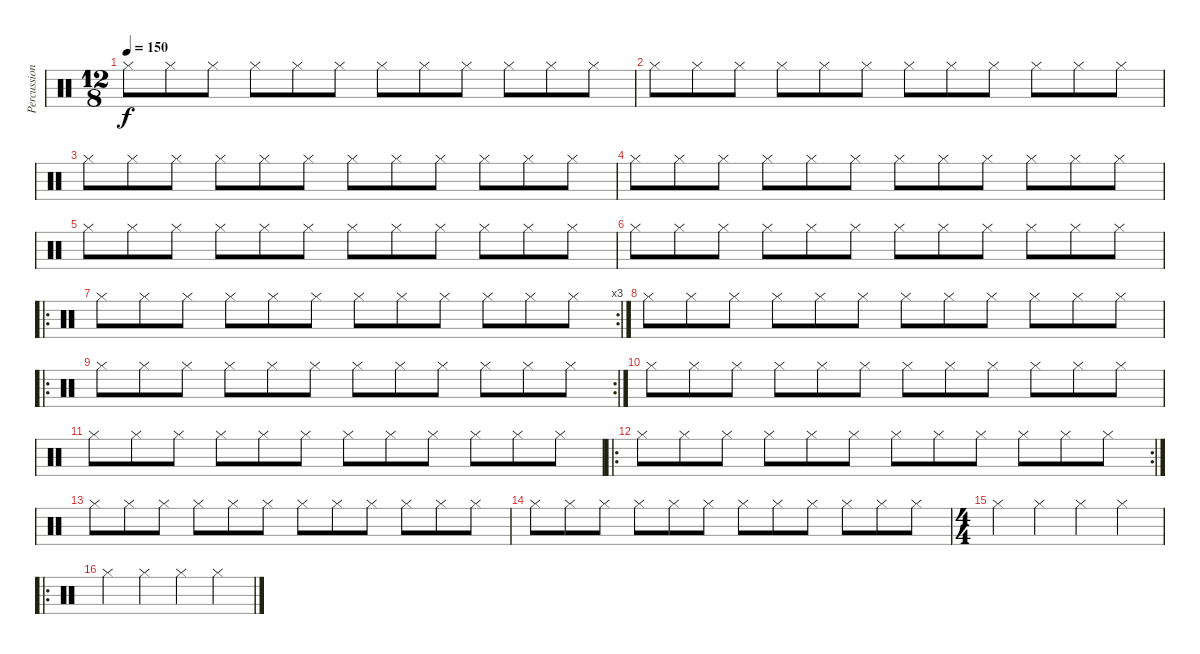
\track ("Percussioni" "Percussion") {instrument percussion}
\staff {score}
\articulation defaults
\ts (12 8)
\tempo 150
\clef neutral
\ks c "Hi-Hat (closed)".8{dy f} "Hi-Hat (closed)".8 "Hi-Hat (closed)".8 "Hi-Hat (closed)".8 "Hi-Hat (closed)".8 "Hi-Hat (closed)".8 "Hi-Hat (closed)".8 "Hi-Hat (closed)".8 "Hi-Hat (closed)".8 "Hi-Hat (closed)".8 "Hi-Hat (closed)".8 "Hi-Hat (closed)".8
|
"Hi-Hat (closed)".8 "Hi-Hat (closed)".8 "Hi-Hat (closed)".8 "Hi-Hat (closed)".8 "Hi-Hat (closed)".8 "Hi-Hat (closed)".8 "Hi-Hat (closed)".8 "Hi-Hat (closed)".8 "Hi-Hat (closed)".8 "Hi-Hat (closed)".8 "Hi-Hat (closed)".8 "Hi-Hat (closed)".8 |
"Hi-Hat (closed)".8 "Hi-Hat (closed)".8 "Hi-Hat (closed)".8 "Hi-Hat (closed)".8 "Hi-Hat (closed)".8 "Hi-Hat (closed)".8 "Hi-Hat (closed)".8 "Hi-Hat (closed)".8 "Hi-Hat (closed)".8 "Hi-Hat (closed)".8 "Hi-Hat (closed)".8 "Hi-Hat (closed)".8 |
"Hi-Hat (closed)".8 "Hi-Hat (closed)".8 "Hi-Hat (closed)".8 "Hi-Hat (closed)".8 "Hi-Hat (closed)".8 "Hi-Hat (closed)".8 "Hi-Hat (closed)".8 "Hi-Hat (closed)".8 "Hi-Hat (closed)".8 "Hi-Hat (closed)".8 "Hi-Hat (closed)".8 "Hi-Hat (closed)".8 |
"Hi-Hat (closed)".8 "Hi-Hat (closed)".8 "Hi-Hat (closed)".8 "Hi-Hat (closed)".8 "Hi-Hat (closed)".8 "Hi-Hat (closed)".8 "Hi-Hat (closed)".8 "Hi-Hat (closed)".8 "Hi-Hat (closed)".8 "Hi-Hat (closed)".8 "Hi-Hat (closed)".8 "Hi-Hat (closed)".8 |
"Hi-Hat (closed)".8 "Hi-Hat (closed)".8 "Hi-Hat (closed)".8 "Hi-Hat (closed)".8 "Hi-Hat (closed)".8 "Hi-Hat (closed)".8 "Hi-Hat (closed)".8 "Hi-Hat (closed)".8 "Hi-Hat (closed)".8 "Hi-Hat (closed)".8 "Hi-Hat (closed)".8 "Hi-Hat (closed)".8 |
\ro
\rc 3 "Hi-Hat (closed)".8 "Hi-Hat (closed)".8 "Hi-Hat (closed)".8 "Hi-Hat (closed)".8 "Hi-Hat (closed)".8 "Hi-Hat (closed)".8 "Hi-Hat (closed)".8 "Hi-Hat (closed)".8 "Hi-Hat (closed)".8 "Hi-Hat (closed)".8 "Hi-Hat (closed)".8 "Hi-Hat (closed)".8
|
"Hi-Hat (closed)".8 "Hi-Hat (closed)".8 "Hi-Hat (closed)".8 "Hi-Hat (closed)".8 "Hi-Hat (closed)".8 "Hi-Hat (closed)".8 "Hi-Hat (closed)".8 "Hi-Hat (closed)".8 "Hi-Hat (closed)".8 "Hi-Hat (closed)".8 "Hi-Hat (closed)".8 "Hi-Hat (closed)".8 |
\ro
\rc 2 "Hi-Hat (closed)".8 "Hi-Hat (closed)".8 "Hi-Hat (closed)".8 "Hi-Hat (closed)".8 "Hi-Hat (closed)".8 "Hi-Hat (closed)".8 "Hi-Hat (closed)".8 "Hi-Hat (closed)".8 "Hi-Hat (closed)".8 "Hi-Hat (closed)".8 "Hi-Hat (closed)".8 "Hi-Hat (closed)".8
|
"Hi-Hat (closed)".8 "Hi-Hat (closed)".8 "Hi-Hat (closed)".8 "Hi-Hat (closed)".8 "Hi-Hat (closed)".8 "Hi-Hat (closed)".8 "Hi-Hat (closed)".8 "Hi-Hat (closed)".8 "Hi-Hat (closed)".8 "Hi-Hat (closed)".8 "Hi-Hat (closed)".8 "Hi-Hat (closed)".8 |
"Hi-Hat (closed)".8 "Hi-Hat (closed)".8 "Hi-Hat (closed)".8 "Hi-Hat (closed)".8 "Hi-Hat (closed)".8 "Hi-Hat (closed)".8 "Hi-Hat (closed)".8 "Hi-Hat (closed)".8 "Hi-Hat (closed)".8 "Hi-Hat (closed)".8 "Hi-Hat (closed)".8 "Hi-Hat (closed)".8 |
\ro
\rc 2 "Hi-Hat (closed)".8 "Hi-Hat (closed)".8 "Hi-Hat (closed)".8 "Hi-Hat (closed)".8 "Hi-Hat (closed)".8 "Hi-Hat (closed)".8 "Hi-Hat (closed)".8 "Hi-Hat (closed)".8 "Hi-Hat (closed)".8 "Hi-Hat (closed)".8 "Hi-Hat (closed)".8 "Hi-Hat (closed)".8
|
"Hi-Hat (closed)".8 "Hi-Hat (closed)".8 "Hi-Hat (closed)".8 "Hi-Hat (closed)".8 "Hi-Hat (closed)".8 "Hi-Hat (closed)".8 "Hi-Hat (closed)".8 "Hi-Hat (closed)".8 "Hi-Hat (closed)".8 "Hi-Hat (closed)".8 "Hi-Hat (closed)".8 "Hi-Hat (closed)".8 |
"Hi-Hat (closed)".8 "Hi-Hat (closed)".8 "Hi-Hat (closed)".8 "Hi-Hat (closed)".8 "Hi-Hat (closed)".8 "Hi-Hat (closed)".8 "Hi-Hat (closed)".8 "Hi-Hat (closed)".8 "Hi-Hat (closed)".8 "Hi-Hat (closed)".8 "Hi-Hat (closed)".8 "Hi-Hat (closed)".8 |
\ts (4 4)
"Hi-Hat (closed)".4 "Hi-Hat (closed)".4 "Hi-Hat (closed)".4 "Hi-Hat (closed)".4 |
\ro "Hi-Hat (closed)".4 "Hi-Hat (closed)".4 "Hi-Hat (closed)".4 "Hi-Hat (closed)".4
